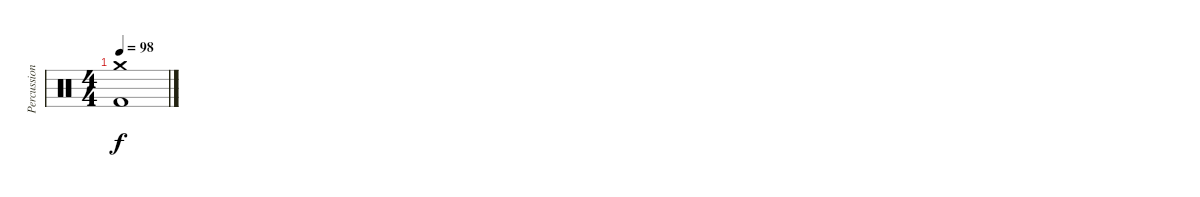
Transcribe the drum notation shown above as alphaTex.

\track ("Percussion" "Percussion") {instrument percussion}
\staff {score}
\articulation defaults
\ts (4 4)
\tempo 98
\clef neutral
\ks c
("Crash medium (hit)" "Kick (hit) 2").1{dy f}
